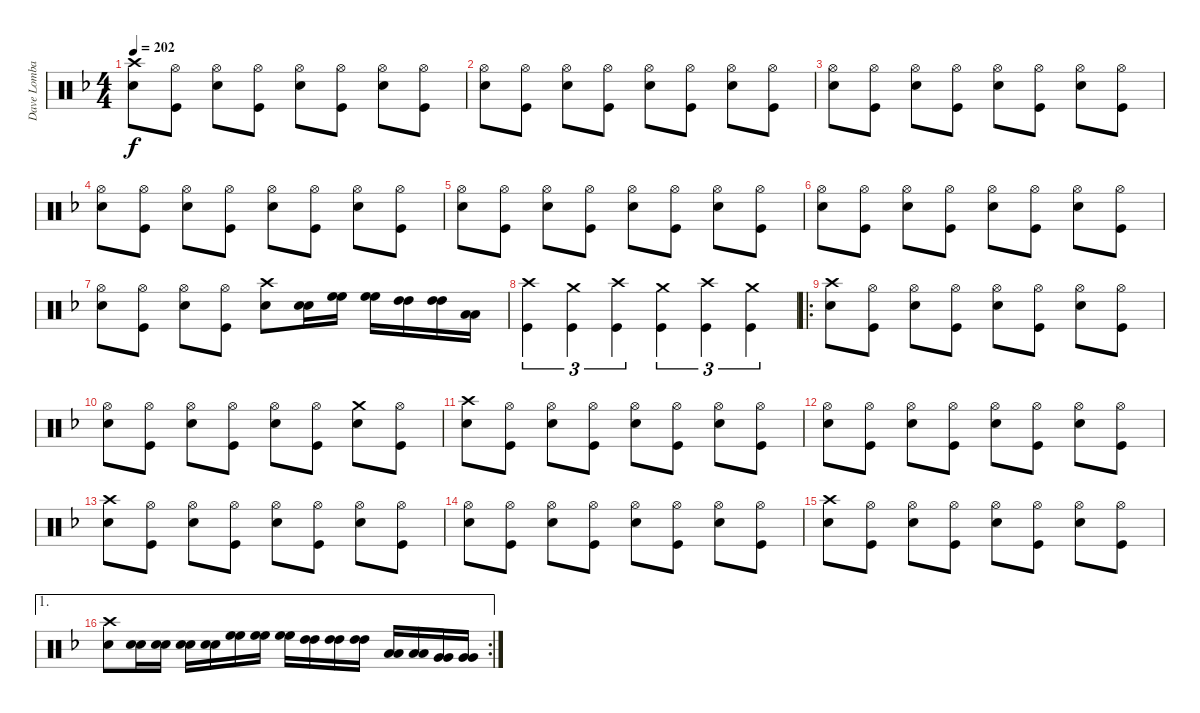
\track ("Dave Lombardo - Drums" "Dave Lomba") {instrument percussion}
\staff {score}
\articulation defaults
\ts (4 4)
\tempo 202
\clef neutral
\ks f
("Crash high (hit)" "Snare (hit) 2").8{dy f} ("Hi-Hat (open)" "Kick (hit)").8 ("Hi-Hat (open)" "Snare (hit) 2").8 ("Hi-Hat (open)" "Kick (hit)").8 ("Hi-Hat (open)" "Snare (hit) 2").8 ("Hi-Hat (open)" "Kick (hit)").8 ("Hi-Hat (open)" "Snare (hit) 2").8 ("Hi-Hat (open)" "Kick (hit)").8 |
("Hi-Hat (open)" "Snare (hit) 2").8 ("Hi-Hat (open)" "Kick (hit)").8 ("Hi-Hat (open)" "Snare (hit) 2").8 ("Hi-Hat (open)" "Kick (hit)").8 ("Hi-Hat (open)" "Snare (hit) 2").8 ("Hi-Hat (open)" "Kick (hit)").8 ("Hi-Hat (open)" "Snare (hit) 2").8 ("Hi-Hat (open)" "Kick (hit)").8 |
("Hi-Hat (open)" "Snare (hit) 2").8 ("Hi-Hat (open)" "Kick (hit)").8 ("Hi-Hat (open)" "Snare (hit) 2").8 ("Hi-Hat (open)" "Kick (hit)").8 ("Hi-Hat (open)" "Snare (hit) 2").8 ("Hi-Hat (open)" "Kick (hit)").8 ("Hi-Hat (open)" "Snare (hit) 2").8 ("Hi-Hat (open)" "Kick (hit)").8 |
("Hi-Hat (open)" "Snare (hit) 2").8 ("Hi-Hat (open)" "Kick (hit)").8 ("Hi-Hat (open)" "Snare (hit) 2").8 ("Hi-Hat (open)" "Kick (hit)").8 ("Hi-Hat (open)" "Snare (hit) 2").8 ("Hi-Hat (open)" "Kick (hit)").8 ("Hi-Hat (open)" "Snare (hit) 2").8 ("Hi-Hat (open)" "Kick (hit)").8 |
("Hi-Hat (open)" "Snare (hit) 2").8 ("Hi-Hat (open)" "Kick (hit)").8 ("Hi-Hat (open)" "Snare (hit) 2").8 ("Hi-Hat (open)" "Kick (hit)").8 ("Hi-Hat (open)" "Snare (hit) 2").8 ("Hi-Hat (open)" "Kick (hit)").8 ("Hi-Hat (open)" "Snare (hit) 2").8 ("Hi-Hat (open)" "Kick (hit)").8 |
("Hi-Hat (open)" "Snare (hit) 2").8 ("Hi-Hat (open)" "Kick (hit)").8 ("Hi-Hat (open)" "Snare (hit) 2").8 ("Hi-Hat (open)" "Kick (hit)").8 ("Hi-Hat (open)" "Snare (hit) 2").8 ("Hi-Hat (open)" "Kick (hit)").8 ("Hi-Hat (open)" "Snare (hit) 2").8 ("Hi-Hat (open)" "Kick (hit)").8 |
("Hi-Hat (open)" "Snare (hit) 2").8 ("Hi-Hat (open)" "Kick (hit)").8 ("Hi-Hat (open)" "Snare (hit) 2").8 ("Hi-Hat (open)" "Kick (hit)").8 ("Crash high (hit)" "Snare (hit) 2").8 ("Snare (hit) 2" "Snare (hit) 2").16 ("High Floor Tom (hit)" "High Floor Tom (hit)").16 ("High Floor Tom (hit)" "High Floor Tom (hit)").16 ("High Tom (hit)" "High Tom (hit)").16 ("High Tom (hit)" "High Tom (hit)").16 ("Low Tom (hit)" "Low Tom (hit)").16 |
("Crash high (hit)" "Kick (hit)").4{tu (3 2)} ("Crash medium (hit)" "Kick (hit)").4{tu (3 2)} ("Crash high (hit)" "Kick (hit)").4{tu (3 2)} ("Crash medium (hit)" "Kick (hit)").4{tu (3 2)} ("Crash high (hit)" "Kick (hit)").4{tu (3 2)} ("Crash medium (hit)" "Kick (hit)").4{tu (3 2)} |
\ro
("Crash high (hit)" "Snare (hit) 2").8 ("Hi-Hat (open)" "Kick (hit)").8 ("Hi-Hat (open)" "Snare (hit) 2").8 ("Hi-Hat (open)" "Kick (hit)").8 ("Hi-Hat (open)" "Snare (hit) 2").8 ("Hi-Hat (open)" "Kick (hit)").8 ("Hi-Hat (open)" "Snare (hit) 2").8 ("Hi-Hat (open)" "Kick (hit)").8 |
("Hi-Hat (open)" "Snare (hit) 2").8 ("Hi-Hat (open)" "Kick (hit)").8 ("Hi-Hat (open)" "Snare (hit) 2").8 ("Hi-Hat (open)" "Kick (hit)").8 ("Hi-Hat (open)" "Snare (hit) 2").8 ("Hi-Hat (open)" "Kick (hit)").8 ("Crash medium (hit)" "Snare (hit) 2").8 ("Hi-Hat (open)" "Kick (hit)").8 |
("Crash high (hit)" "Snare (hit) 2").8 ("Hi-Hat (open)" "Kick (hit)").8 ("Hi-Hat (open)" "Snare (hit) 2").8 ("Hi-Hat (open)" "Kick (hit)").8 ("Hi-Hat (open)" "Snare (hit) 2").8 ("Hi-Hat (open)" "Kick (hit)").8 ("Hi-Hat (open)" "Snare (hit) 2").8 ("Hi-Hat (open)" "Kick (hit)").8 |
("Hi-Hat (open)" "Snare (hit) 2").8 ("Hi-Hat (open)" "Kick (hit)").8 ("Hi-Hat (open)" "Snare (hit) 2").8 ("Hi-Hat (open)" "Kick (hit)").8 ("Hi-Hat (open)" "Snare (hit) 2").8 ("Hi-Hat (open)" "Kick (hit)").8 ("Hi-Hat (open)" "Snare (hit) 2").8 ("Hi-Hat (open)" "Kick (hit)").8 |
("Crash high (hit)" "Snare (hit) 2").8 ("Hi-Hat (open)" "Kick (hit)").8 ("Hi-Hat (open)" "Snare (hit) 2").8 ("Hi-Hat (open)" "Kick (hit)").8 ("Hi-Hat (open)" "Snare (hit) 2").8 ("Hi-Hat (open)" "Kick (hit)").8 ("Hi-Hat (open)" "Snare (hit) 2").8 ("Hi-Hat (open)" "Kick (hit)").8 |
("Hi-Hat (open)" "Snare (hit) 2").8 ("Hi-Hat (open)" "Kick (hit)").8 ("Hi-Hat (open)" "Snare (hit) 2").8 ("Hi-Hat (open)" "Kick (hit)").8 ("Hi-Hat (open)" "Snare (hit) 2").8 ("Hi-Hat (open)" "Kick (hit)").8 ("Hi-Hat (open)" "Snare (hit) 2").8 ("Hi-Hat (open)" "Kick (hit)").8 |
("Crash high (hit)" "Snare (hit) 2").8 ("Hi-Hat (open)" "Kick (hit)").8 ("Hi-Hat (open)" "Snare (hit) 2").8 ("Hi-Hat (open)" "Kick (hit)").8 ("Hi-Hat (open)" "Snare (hit) 2").8 ("Hi-Hat (open)" "Kick (hit)").8 ("Hi-Hat (open)" "Snare (hit) 2").8 ("Hi-Hat (open)" "Kick (hit)").8 |
\ae 1
\rc 2
("Crash high (hit)" "Snare (hit) 2").8 ("Snare (hit) 2" "Snare (hit) 2").16 ("Snare (hit) 2" "Snare (hit) 2").16 ("Snare (hit) 2" "Snare (hit) 2").16 ("Snare (hit) 2" "Snare (hit) 2").16 ("High Floor Tom (hit)" "High Floor Tom (hit)").16 ("High Floor Tom (hit)" "High Floor Tom (hit)").16 ("High Floor Tom (hit)" "High Floor Tom (hit)").16 ("High Tom (hit)" "High Tom (hit)").16 ("High Tom (hit)" "High Tom (hit)").16 ("High Tom (hit)" "High Tom (hit)").16 ("Low Tom (hit)" "Low Tom (hit)").16 ("Low Tom (hit)" "Low Tom (hit)").16 ("Very Low Tom (hit)" "Very Low Tom (hit)").16 ("Very Low Tom (hit)" "Very Low Tom (hit)").16
